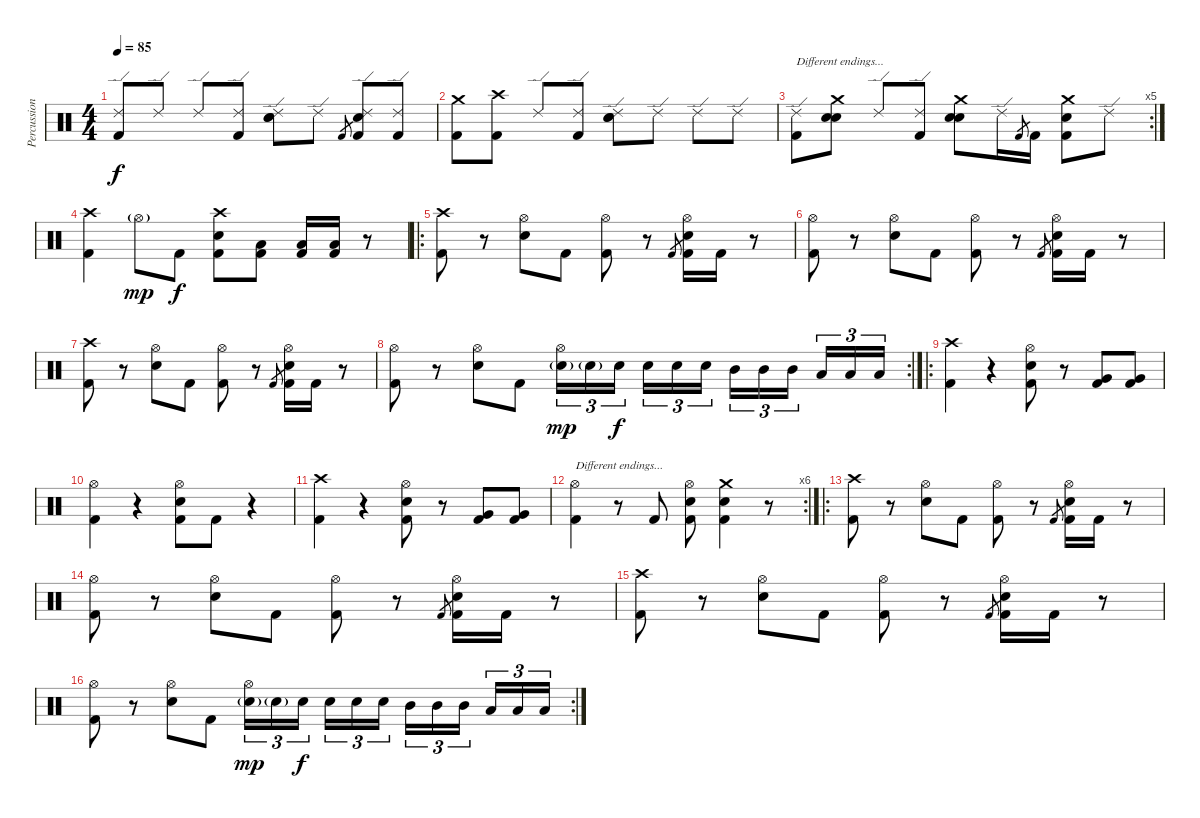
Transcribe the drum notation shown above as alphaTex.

\track ("Percussion" "Percussion") {instrument percussion}
\staff {score}
\articulation defaults
\ts (4 4)
\tempo 85
\clef neutral
\ks c
("Ride (edge) 2" "Kick (hit) 2").8{dy f} "Ride (edge) 2".8 "Ride (edge) 2".8 ("Ride (edge) 2" "Kick (hit) 2").8 ("Ride (edge) 2" "Electric Snare (hit)" "Electric Snare (hit)").8 "Ride (edge) 2".8 "Kick (hit) 2".8{gr} ("Ride (edge) 2" "Electric Snare (hit)" "Kick (hit) 2").8 ("Ride (edge) 2" "Kick (hit) 2").8 |
("Crash medium (hit)" "Kick (hit) 2").8 ("Crash high (hit)" "Kick (hit) 2").8 "Ride (edge) 2".8 ("Ride (edge) 2" "Kick (hit) 2").8 ("Ride (edge) 2" "Electric Snare (hit)" "Electric Snare (hit)").8 "Ride (edge) 2".8 "Ride (edge) 2".8 "Ride (edge) 2".8 |
\rc 5
("Ride (edge) 2" "Kick (hit) 2").8{txt "Different endings..."} ("Crash medium (hit)" "Electric Snare (hit)" "Electric Snare (hit)").8 "Ride (edge) 2".8 ("Ride (edge) 2" "Kick (hit) 2").8 ("Crash medium (hit)" "Electric Snare (hit)" "Electric Snare (hit)").8 "Ride (edge) 2".16 "Kick (hit) 2".8{gr} "Kick (hit) 2".16 ("Crash medium (hit)" "Electric Snare (hit)" "Kick (hit) 2").8 "Ride (edge) 2".8 |
("Crash high (hit)" "Kick (hit) 2").4 "Hi-Hat (open)"{g}.8{dy mp} "Kick (hit) 2".8{dy f} ("Crash high (hit)" "Electric Snare (hit)" "Kick (hit) 2").8 ("Low Tom (hit)" "Kick (hit) 2").8 ("Low Tom (hit)" "Kick (hit) 2").16 ("Low Tom (hit)" "Kick (hit) 2").16 r.8 |
\ro
("Crash high (hit)" "Kick (hit) 2").8 r.8 ("Hi-Hat (open)" "Electric Snare (hit)").8 "Kick (hit) 2".8 ("Hi-Hat (open)" "Kick (hit) 2").8 r.8 "Kick (hit) 2".8{gr} ("Hi-Hat (open)" "Electric Snare (hit)" "Kick (hit) 2").16 "Kick (hit) 2".16 r.8 |
("Hi-Hat (open)" "Kick (hit) 2").8 r.8 ("Hi-Hat (open)" "Electric Snare (hit)").8 "Kick (hit) 2".8 ("Hi-Hat (open)" "Kick (hit) 2").8 r.8 "Kick (hit) 2".8{gr} ("Hi-Hat (open)" "Electric Snare (hit)" "Kick (hit) 2").16 "Kick (hit) 2".16 r.8 |
("Crash high (hit)" "Kick (hit) 2").8 r.8 ("Hi-Hat (open)" "Electric Snare (hit)").8 "Kick (hit) 2".8 ("Hi-Hat (open)" "Kick (hit) 2").8 r.8 "Kick (hit) 2".8{gr} ("Hi-Hat (open)" "Electric Snare (hit)" "Kick (hit) 2").16 "Kick (hit) 2".16 r.8 |
\rc 2
("Hi-Hat (open)" "Kick (hit) 2").8 r.8 ("Hi-Hat (open)" "Electric Snare (hit)").8 "Kick (hit) 2".8 ("Hi-Hat (open)" "Electric Snare (hit)"{g}).16{tu (3 2) dy mp} "Electric Snare (hit)"{g}.16{tu (3 2)} "Electric Snare (hit)".16{tu (3 2) dy f} "Electric Snare (hit)".16{tu (3 2)} "Electric Snare (hit)".16{tu (3 2)} "Electric Snare (hit)".16{tu (3 2)} "Mid Tom (hit)".16{tu (3 2)} "Mid Tom (hit)".16{tu (3 2)} "Mid Tom (hit)".16{tu (3 2)} "Low Tom (hit)".16{tu (3 2)} "Low Tom (hit)".16{tu (3 2)} "Low Tom (hit)".16{tu (3 2)} |
\ro
("Crash high (hit)" "Kick (hit) 2").4 r.4 ("Hi-Hat (open)" "Electric Snare (hit)" "Kick (hit) 2").8 r.8 ("Very Low Tom (hit)" "Kick (hit) 2").8 ("Very Low Tom (hit)" "Kick (hit) 2").8 |
("Hi-Hat (open)" "Kick (hit) 2").4 r.4 ("Hi-Hat (open)" "Electric Snare (hit)" "Kick (hit) 2").8 "Kick (hit) 2".8 r.4 |
("Crash high (hit)" "Kick (hit) 2").4 r.4 ("Hi-Hat (open)" "Electric Snare (hit)" "Kick (hit) 2").8 r.8 ("Very Low Tom (hit)" "Kick (hit) 2").8 ("Very Low Tom (hit)" "Kick (hit) 2").8 |
\rc 6
("Hi-Hat (open)" "Kick (hit) 2").4{txt "Different endings..."} r.8 "Kick (hit) 2".8 ("Hi-Hat (open)" "Electric Snare (hit)" "Kick (hit) 2").8 ("Crash medium (hit)" "Electric Snare (hit)" "Kick (hit) 2").4 r.8 |
\ro
("Crash high (hit)" "Kick (hit) 2").8 r.8 ("Hi-Hat (open)" "Electric Snare (hit)").8 "Kick (hit) 2".8 ("Hi-Hat (open)" "Kick (hit) 2").8 r.8 "Kick (hit) 2".8{gr} ("Hi-Hat (open)" "Electric Snare (hit)" "Kick (hit) 2").16 "Kick (hit) 2".16 r.8 |
("Hi-Hat (open)" "Kick (hit) 2").8 r.8 ("Hi-Hat (open)" "Electric Snare (hit)").8 "Kick (hit) 2".8 ("Hi-Hat (open)" "Kick (hit) 2").8 r.8 "Kick (hit) 2".8{gr} ("Hi-Hat (open)" "Electric Snare (hit)" "Kick (hit) 2").16 "Kick (hit) 2".16 r.8 |
("Crash high (hit)" "Kick (hit) 2").8 r.8 ("Hi-Hat (open)" "Electric Snare (hit)").8 "Kick (hit) 2".8 ("Hi-Hat (open)" "Kick (hit) 2").8 r.8 "Kick (hit) 2".8{gr} ("Hi-Hat (open)" "Electric Snare (hit)" "Kick (hit) 2").16 "Kick (hit) 2".16 r.8 |
\rc 2
("Hi-Hat (open)" "Kick (hit) 2").8 r.8 ("Hi-Hat (open)" "Electric Snare (hit)").8 "Kick (hit) 2".8 ("Hi-Hat (open)" "Electric Snare (hit)"{g}).16{tu (3 2) dy mp} "Electric Snare (hit)"{g}.16{tu (3 2)} "Electric Snare (hit)".16{tu (3 2) dy f} "Electric Snare (hit)".16{tu (3 2)} "Electric Snare (hit)".16{tu (3 2)} "Electric Snare (hit)".16{tu (3 2)} "Mid Tom (hit)".16{tu (3 2)} "Mid Tom (hit)".16{tu (3 2)} "Mid Tom (hit)".16{tu (3 2)} "Low Tom (hit)".16{tu (3 2)} "Low Tom (hit)".16{tu (3 2)} "Low Tom (hit)".16{tu (3 2)}
